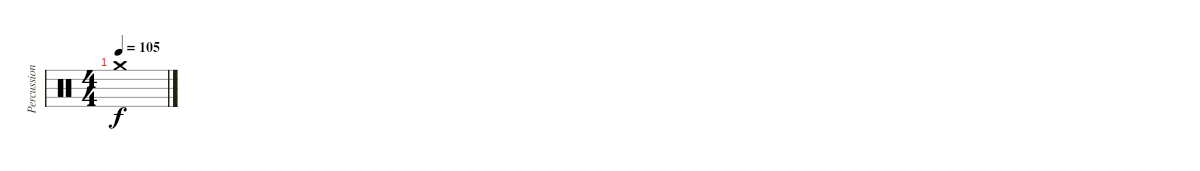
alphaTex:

\track ("Percussions" "Percussion") {instrument percussion}
\staff {score}
\articulation defaults
\ts (4 4)
\tempo 105
\clef neutral
\ks c "Crash medium (hit)".1{dy f}
